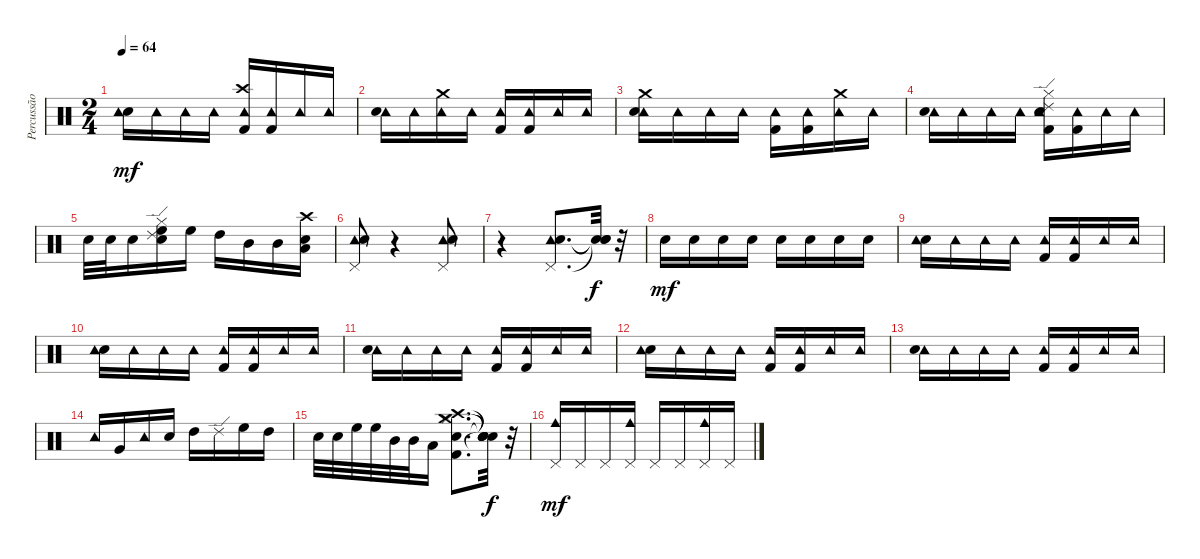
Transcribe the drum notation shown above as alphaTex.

\track ("Percussão" "Percussão") {instrument percussion}
\staff {score}
\articulation defaults
\ts (2 4)
\tempo 64
\clef neutral
\ks c
("Snare (hit) 2" "Tambourine (hit)").16{dy mf} "Tambourine (hit)".16 "Tambourine (hit)".16 "Tambourine (hit)".16 ("Crash high (hit)" "Tambourine (hit)" "Kick (hit) 2").16 ("Kick (hit) 2" "Tambourine (hit)").16 "Tambourine (hit)".16 "Tambourine (hit)".16 |
("Tambourine (hit)" "Snare (hit) 2").16 "Tambourine (hit)".16 ("Crash medium (hit)" "Tambourine (hit)").16 "Tambourine (hit)".16 ("Kick (hit) 2" "Tambourine (hit)").16 ("Tambourine (hit)" "Kick (hit) 2").16 "Tambourine (hit)".16 "Tambourine (hit)".16 |
("Crash medium (hit)" "Tambourine (hit)" "Snare (hit) 2").16 "Tambourine (hit)".16 "Tambourine (hit)".16 "Tambourine (hit)".16 ("Kick (hit) 2" "Tambourine (hit)").16 ("Tambourine (hit)" "Kick (hit) 2").16 ("Crash medium (hit)" "Tambourine (hit)").16 "Tambourine (hit)".16 |
("Tambourine (hit)" "Snare (hit) 2").16 "Tambourine (hit)".16 "Tambourine (hit)".16 "Tambourine (hit)".16 ("Snare (hit) 2" "Ride (edge) 2" "Hi-Hat (closed)" "Kick (hit) 2" "Tambourine (hit)").16 ("Tambourine (hit)" "Kick (hit) 2").16 "Tambourine (hit)".16 "Tambourine (hit)".16 |
"Snare (hit) 2".32 "Snare (hit) 2".32 "Snare (hit) 2".16 ("Ride (edge) 2" "Hi-Hat (closed)" "Snare (hit) 2" "High Floor Tom (hit)").16 "High Floor Tom (hit)".16 "High Tom (hit)".16 "Mid Tom (hit)".16 "Mid Tom (hit)".16 ("Crash high (hit)" "Low Floor Tom (hit)" "Snare (hit) 2").16 |
("Pedal Hi-Hat (hit)" "Tambourine (hit)" "Snare (hit) 2").8 r.4 ("Pedal Hi-Hat (hit)" "Tambourine (hit)" "Snare (hit) 2").8 |
r.4 ("Pedal Hi-Hat (hit)" "Tambourine (hit)" "Snare (hit) 2").8{d} ("Snare (hit)"{t} "Snare (hit)"{t} "Snare (hit)"{t}).32{dy f} r.32 |
"Snare (hit) 2".16{dy mf} "Snare (hit) 2".16 "Snare (hit) 2".16 "Snare (hit) 2".16 "Snare (hit) 2".16 "Snare (hit) 2".16 "Snare (hit) 2".16 "Snare (hit) 2".16 |
("Snare (hit) 2" "Tambourine (hit)").16 "Tambourine (hit)".16 "Tambourine (hit)".16 "Tambourine (hit)".16 ("Kick (hit) 2" "Tambourine (hit)").16 ("Tambourine (hit)" "Kick (hit) 2").16 "Tambourine (hit)".16 "Tambourine (hit)".16 |
("Snare (hit) 2" "Tambourine (hit)").16 "Tambourine (hit)".16 "Tambourine (hit)".16 "Tambourine (hit)".16 ("Tambourine (hit)" "Kick (hit) 2").16 ("Kick (hit) 2" "Tambourine (hit)").16 "Tambourine (hit)".16 "Tambourine (hit)".16 |
("Tambourine (hit)" "Snare (hit) 2").16 "Tambourine (hit)".16 "Tambourine (hit)".16 "Tambourine (hit)".16 ("Kick (hit) 2" "Tambourine (hit)").16 ("Kick (hit) 2" "Tambourine (hit)").16 "Tambourine (hit)".16 "Tambourine (hit)".16 |
("Snare (hit) 2" "Tambourine (hit)").16 "Tambourine (hit)".16 "Tambourine (hit)".16 "Tambourine (hit)".16 ("Kick (hit) 2" "Tambourine (hit)").16 ("Kick (hit) 2" "Tambourine (hit)").16 "Tambourine (hit)".16 "Tambourine (hit)".16 |
("Tambourine (hit)" "Snare (hit) 2").16 "Tambourine (hit)".16 "Tambourine (hit)".16 "Tambourine (hit)".16 ("Kick (hit) 2" "Tambourine (hit)").16 ("Tambourine (hit)" "Kick (hit) 2").16 "Tambourine (hit)".16 "Tambourine (hit)".16 |
"Tambourine (hit)".16 "Very Low Tom (hit)".16 "Tambourine (hit)".16 "Snare (hit) 2".16 "High Tom (hit)".16 "Ride (edge) 2".16 "High Floor Tom (hit)".16 "High Tom (hit)".16 |
"Snare (hit) 2".32 "Snare (hit) 2".32 "High Floor Tom (hit)".32 "High Floor Tom (hit)".32 "Mid Tom (hit)".32 "Mid Tom (hit)".32 "Low Floor Tom (hit)".16 ("Hi-Hat (closed)" "Crash medium (hit)" "Snare (hit) 2" "Kick (hit) 2" "Crash high (hit)").8{d} ("Snare (hit)"{t} "Snare (hit)"{t} "Snare (hit)"{t} "Snare (hit)"{t} "Snare (hit)"{t}).32{dy f} r.32 |
("Pedal Hi-Hat (hit)" "Cowbell medium (hit)").16{dy mf} "Pedal Hi-Hat (hit)".16 "Pedal Hi-Hat (hit)".16 ("Pedal Hi-Hat (hit)" "Cowbell medium (hit)").16 "Pedal Hi-Hat (hit)".16 "Pedal Hi-Hat (hit)".16 ("Pedal Hi-Hat (hit)" "Cowbell medium (hit)").16 "Pedal Hi-Hat (hit)".16
